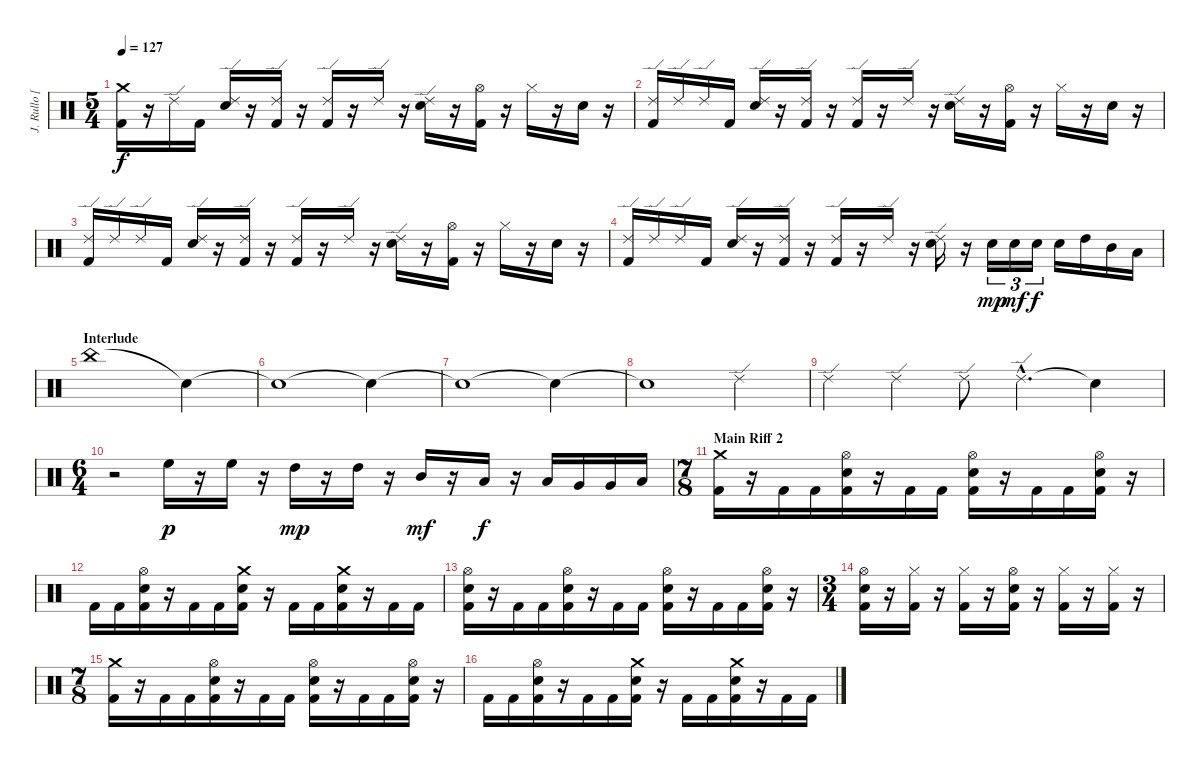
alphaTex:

\track ("J. Rullo [Drums]" "J. Rullo [") {instrument percussion}
\staff {score}
\articulation defaults
\ts (5 4)
\tempo 127
\clef neutral
\ks c
("Crash medium (hit)" "Kick (hit) 2").16{dy f} r.16 "Ride (edge) 2".16 "Kick (hit) 2".16 ("Ride (edge) 2" "Electric Snare (hit)").16 r.16 ("Ride (edge) 2" "Kick (hit) 2").16 r.16 ("Ride (edge) 2" "Kick (hit) 2").16 r.16 "Ride (edge) 2".16 r.16 ("Ride (edge) 2" "Electric Snare (hit)").16 r.16 ("Hi-Hat (open)" "Kick (hit) 2").16 r.16 "Hi-Hat (closed)".16 r.16 "Electric Snare (hit)".16 r.16 |
("Ride (edge) 2" "Kick (hit) 2").16 "Ride (edge) 2".16 "Ride (edge) 2".16 "Kick (hit) 2".16 ("Ride (edge) 2" "Electric Snare (hit)").16 r.16 ("Ride (edge) 2" "Kick (hit) 2").16 r.16 ("Ride (edge) 2" "Kick (hit) 2").16 r.16 "Ride (edge) 2".16 r.16 ("Ride (edge) 2" "Electric Snare (hit)").16 r.16 ("Hi-Hat (open)" "Kick (hit) 2").16 r.16 "Hi-Hat (closed)".16 r.16 "Electric Snare (hit)".16 r.16 |
("Ride (edge) 2" "Kick (hit) 2").16 "Ride (edge) 2".16 "Ride (edge) 2".16 "Kick (hit) 2".16 ("Ride (edge) 2" "Electric Snare (hit)").16 r.16 ("Ride (edge) 2" "Kick (hit) 2").16 r.16 ("Ride (edge) 2" "Kick (hit) 2").16 r.16 "Ride (edge) 2".16 r.16 ("Ride (edge) 2" "Electric Snare (hit)").16 r.16 ("Hi-Hat (open)" "Kick (hit) 2").16 r.16 "Hi-Hat (closed)".16 r.16 "Electric Snare (hit)".16 r.16 |
("Ride (edge) 2" "Kick (hit) 2").16 "Ride (edge) 2".16 "Ride (edge) 2".16 "Kick (hit) 2".16 ("Ride (edge) 2" "Electric Snare (hit)").16 r.16 ("Ride (edge) 2" "Kick (hit) 2").16 r.16 ("Ride (edge) 2" "Kick (hit) 2").16 r.16 "Ride (edge) 2".16 r.16 ("Ride (edge) 2" "Electric Snare (hit)").16 r.16 "Electric Snare (hit)".16{tu (3 2) dy mp} "Electric Snare (hit)".16{tu (3 2) dy mf} "Electric Snare (hit)".16{tu (3 2) dy f} "Electric Snare (hit)".16 "High Tom (hit)".16 "Mid Tom (hit)".16 "Low Tom (hit)".16 |
\section ("" "Interlude")
"China (hit)".1 "Snare (hit)"{t}.4 |
"Snare (hit)"{t}.1 "Snare (hit)"{t}.4 |
"Snare (hit)"{t}.1 "Snare (hit)"{t}.4 |
"Snare (hit)"{t}.1 "Ride (edge) 2".4 |
"Ride (edge) 2".4 "Ride (edge) 2".4 "Ride (edge) 2".8 "Ride (edge) 2"{hac}.4{d} "Snare (hit)"{t}.4 |
\ts (6 4)
r.2 "High Floor Tom (hit)".16{dy p} r.16 "High Floor Tom (hit)".16 r.16 "High Tom (hit)".16{dy mp} r.16 "High Tom (hit)".16 r.16 "Mid Tom (hit)".16{dy mf} r.16 "Low Tom (hit)".16{dy f} r.16 "Low Tom (hit)".16 "Very Low Tom (hit)".16 "Very Low Tom (hit)".16 "Low Floor Tom (hit)".16 |
\ts (7 8)
\section ("" "Main Riff 2")
("Crash medium (hit)" "Kick (hit) 2").16 r.16 "Kick (hit) 2".16 "Kick (hit) 2".16 ("Hi-Hat (open)" "Electric Snare (hit)" "Kick (hit) 2").16 r.16 "Kick (hit) 2".16 "Kick (hit) 2".16 ("Hi-Hat (open)" "Electric Snare (hit)" "Kick (hit) 2").16 r.16 "Kick (hit) 2".16 "Kick (hit) 2".16 ("Hi-Hat (open)" "Electric Snare (hit)" "Kick (hit) 2").16 r.16 |
"Kick (hit) 2".16 "Kick (hit) 2".16 ("Hi-Hat (open)" "Electric Snare (hit)" "Kick (hit) 2").16 r.16 "Kick (hit) 2".16 "Kick (hit) 2".16 ("Crash medium (hit)" "Electric Snare (hit)" "Kick (hit) 2").16 r.16 "Kick (hit) 2".16 "Kick (hit) 2".16 ("Crash medium (hit)" "Electric Snare (hit)" "Kick (hit) 2").16 r.16 "Kick (hit) 2".16 "Kick (hit) 2".16 |
("Hi-Hat (open)" "Electric Snare (hit)" "Kick (hit) 2").16 r.16 "Kick (hit) 2".16 "Kick (hit) 2".16 ("Hi-Hat (open)" "Electric Snare (hit)" "Kick (hit) 2").16 r.16 "Kick (hit) 2".16 "Kick (hit) 2".16 ("Hi-Hat (open)" "Electric Snare (hit)" "Kick (hit) 2").16 r.16 "Kick (hit) 2".16 "Kick (hit) 2".16 ("Hi-Hat (open)" "Electric Snare (hit)" "Kick (hit) 2").16 r.16 |
\ts (3 4)
("Hi-Hat (open)" "Electric Snare (hit)" "Kick (hit) 2").16 r.16 ("Hi-Hat (closed)" "Kick (hit) 2").16 r.16 ("Hi-Hat (closed)" "Kick (hit) 2").16 r.16 ("Hi-Hat (open)" "Electric Snare (hit)" "Kick (hit) 2").16 r.16 ("Hi-Hat (closed)" "Kick (hit) 2").16 r.16 ("Hi-Hat (closed)" "Kick (hit) 2").16 r.16 |
\ts (7 8)
("Crash medium (hit)" "Kick (hit) 2").16 r.16 "Kick (hit) 2".16 "Kick (hit) 2".16 ("Hi-Hat (open)" "Electric Snare (hit)" "Kick (hit) 2").16 r.16 "Kick (hit) 2".16 "Kick (hit) 2".16 ("Hi-Hat (open)" "Electric Snare (hit)" "Kick (hit) 2").16 r.16 "Kick (hit) 2".16 "Kick (hit) 2".16 ("Hi-Hat (open)" "Electric Snare (hit)" "Kick (hit) 2").16 r.16 |
"Kick (hit) 2".16 "Kick (hit) 2".16 ("Hi-Hat (open)" "Electric Snare (hit)" "Kick (hit) 2").16 r.16 "Kick (hit) 2".16 "Kick (hit) 2".16 ("Crash medium (hit)" "Electric Snare (hit)" "Kick (hit) 2").16 r.16 "Kick (hit) 2".16 "Kick (hit) 2".16 ("Crash medium (hit)" "Electric Snare (hit)" "Kick (hit) 2").16 r.16 "Kick (hit) 2".16 "Kick (hit) 2".16
